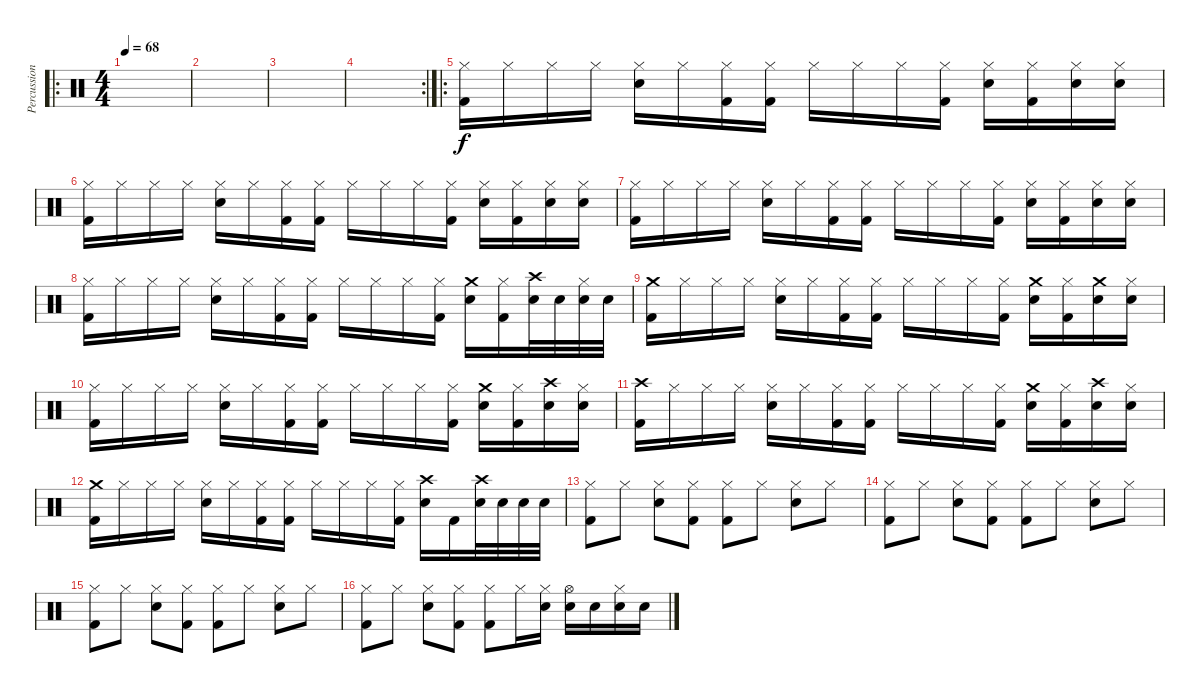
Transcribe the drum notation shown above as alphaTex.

\track ("Percussion" "Percussion") {instrument percussion}
\staff {score}
\articulation defaults
\ro
\ts (4 4)
\tempo 68
\clef neutral
\ks c
|
|
|
\rc 2
|
\ro
("Hi-Hat (closed)" "Kick (hit) 2").16 "Hi-Hat (closed)".16 "Hi-Hat (closed)".16 "Hi-Hat (closed)".16 ("Hi-Hat (closed)" "Electric Snare (hit)").16 "Hi-Hat (closed)".16 ("Hi-Hat (closed)" "Kick (hit) 2").16 ("Hi-Hat (closed)" "Kick (hit) 2").16 "Hi-Hat (closed)".16 "Hi-Hat (closed)".16 "Hi-Hat (closed)".16 ("Hi-Hat (closed)" "Kick (hit) 2").16 ("Hi-Hat (closed)" "Electric Snare (hit)").16 ("Hi-Hat (closed)" "Kick (hit) 2").16 ("Hi-Hat (closed)" "Electric Snare (hit)").16 ("Hi-Hat (closed)" "Electric Snare (hit)").16 |
("Hi-Hat (closed)" "Kick (hit) 2").16 "Hi-Hat (closed)".16 "Hi-Hat (closed)".16 "Hi-Hat (closed)".16 ("Hi-Hat (closed)" "Electric Snare (hit)").16 "Hi-Hat (closed)".16 ("Hi-Hat (closed)" "Kick (hit) 2").16 ("Hi-Hat (closed)" "Kick (hit) 2").16 "Hi-Hat (closed)".16 "Hi-Hat (closed)".16 "Hi-Hat (closed)".16 ("Hi-Hat (closed)" "Kick (hit) 2").16 ("Hi-Hat (closed)" "Electric Snare (hit)").16 ("Hi-Hat (closed)" "Kick (hit) 2").16 ("Hi-Hat (closed)" "Electric Snare (hit)").16 ("Hi-Hat (closed)" "Electric Snare (hit)").16 |
("Hi-Hat (closed)" "Kick (hit) 2").16 "Hi-Hat (closed)".16 "Hi-Hat (closed)".16 "Hi-Hat (closed)".16 ("Hi-Hat (closed)" "Electric Snare (hit)").16 "Hi-Hat (closed)".16 ("Hi-Hat (closed)" "Kick (hit) 2").16 ("Hi-Hat (closed)" "Kick (hit) 2").16 "Hi-Hat (closed)".16 "Hi-Hat (closed)".16 "Hi-Hat (closed)".16 ("Hi-Hat (closed)" "Kick (hit) 2").16 ("Hi-Hat (closed)" "Electric Snare (hit)").16 ("Hi-Hat (closed)" "Kick (hit) 2").16 ("Hi-Hat (closed)" "Electric Snare (hit)").16 ("Hi-Hat (closed)" "Electric Snare (hit)").16 |
("Hi-Hat (closed)" "Kick (hit) 2").16 "Hi-Hat (closed)".16 "Hi-Hat (closed)".16 "Hi-Hat (closed)".16 ("Hi-Hat (closed)" "Electric Snare (hit)").16 "Hi-Hat (closed)".16 ("Hi-Hat (closed)" "Kick (hit) 2").16 ("Hi-Hat (closed)" "Kick (hit) 2").16 "Hi-Hat (closed)".16 "Hi-Hat (closed)".16 "Hi-Hat (closed)".16 ("Hi-Hat (closed)" "Kick (hit) 2").16 ("Crash medium (hit)" "Electric Snare (hit)").16 ("Hi-Hat (closed)" "Kick (hit) 2").16 ("Crash high (hit)" "Electric Snare (hit)").32 "Electric Snare (hit)".32 ("Hi-Hat (closed)" "Electric Snare (hit)").32 "Electric Snare (hit)".32 |
("Crash medium (hit)" "Kick (hit) 2").16 "Hi-Hat (closed)".16 "Hi-Hat (closed)".16 "Hi-Hat (closed)".16 ("Hi-Hat (closed)" "Electric Snare (hit)").16 "Hi-Hat (closed)".16 ("Hi-Hat (closed)" "Kick (hit) 2").16 ("Hi-Hat (closed)" "Kick (hit) 2").16 "Hi-Hat (closed)".16 "Hi-Hat (closed)".16 "Hi-Hat (closed)".16 ("Hi-Hat (closed)" "Kick (hit) 2").16 ("Crash medium (hit)" "Electric Snare (hit)").16 ("Hi-Hat (closed)" "Kick (hit) 2").16 ("Crash medium (hit)" "Electric Snare (hit)").16 ("Hi-Hat (closed)" "Electric Snare (hit)").16 |
("Hi-Hat (closed)" "Kick (hit) 2").16 "Hi-Hat (closed)".16 "Hi-Hat (closed)".16 "Hi-Hat (closed)".16 ("Hi-Hat (closed)" "Electric Snare (hit)").16 "Hi-Hat (closed)".16 ("Hi-Hat (closed)" "Kick (hit) 2").16 ("Hi-Hat (closed)" "Kick (hit) 2").16 "Hi-Hat (closed)".16 "Hi-Hat (closed)".16 "Hi-Hat (closed)".16 ("Hi-Hat (closed)" "Kick (hit) 2").16 ("Crash medium (hit)" "Electric Snare (hit)").16 ("Hi-Hat (closed)" "Kick (hit) 2").16 ("Crash high (hit)" "Electric Snare (hit)").16 ("Hi-Hat (closed)" "Electric Snare (hit)").16 |
("Crash high (hit)" "Kick (hit) 2").16 "Hi-Hat (closed)".16 "Hi-Hat (closed)".16 "Hi-Hat (closed)".16 ("Hi-Hat (closed)" "Electric Snare (hit)").16 "Hi-Hat (closed)".16 ("Hi-Hat (closed)" "Kick (hit) 2").16 ("Hi-Hat (closed)" "Kick (hit) 2").16 "Hi-Hat (closed)".16 "Hi-Hat (closed)".16 "Hi-Hat (closed)".16 ("Hi-Hat (closed)" "Kick (hit) 2").16 ("Crash medium (hit)" "Electric Snare (hit)").16 ("Hi-Hat (closed)" "Kick (hit) 2").16 ("Crash high (hit)" "Electric Snare (hit)").16 ("Hi-Hat (closed)" "Electric Snare (hit)").16 |
("Crash medium (hit)" "Kick (hit) 2").16 "Hi-Hat (closed)".16 "Hi-Hat (closed)".16 "Hi-Hat (closed)".16 ("Hi-Hat (closed)" "Electric Snare (hit)").16 "Hi-Hat (closed)".16 ("Hi-Hat (closed)" "Kick (hit) 2").16 ("Hi-Hat (closed)" "Kick (hit) 2").16 "Hi-Hat (closed)".16 "Hi-Hat (closed)".16 "Hi-Hat (closed)".16 ("Hi-Hat (closed)" "Kick (hit) 2").16 ("Crash high (hit)" "Electric Snare (hit)").16 "Kick (hit) 2".16 ("Crash high (hit)" "Snare (hit) 2").32 "Snare (hit) 2".32 "Electric Snare (hit)".32 "Electric Snare (hit)".32 |
("Hi-Hat (closed)" "Kick (hit) 2").8 "Hi-Hat (closed)".8 ("Hi-Hat (closed)" "Electric Snare (hit)").8 ("Hi-Hat (closed)" "Kick (hit) 2").8 ("Hi-Hat (closed)" "Kick (hit) 2").8 "Hi-Hat (closed)".8 ("Hi-Hat (closed)" "Electric Snare (hit)").8 "Hi-Hat (closed)".8 |
("Hi-Hat (closed)" "Kick (hit) 2").8 "Hi-Hat (closed)".8 ("Hi-Hat (closed)" "Electric Snare (hit)").8 ("Hi-Hat (closed)" "Kick (hit) 2").8 ("Hi-Hat (closed)" "Kick (hit) 2").8 "Hi-Hat (closed)".8 ("Hi-Hat (closed)" "Electric Snare (hit)").8 "Hi-Hat (closed)".8 |
("Hi-Hat (closed)" "Kick (hit) 2").8 "Hi-Hat (closed)".8 ("Hi-Hat (closed)" "Electric Snare (hit)").8 ("Hi-Hat (closed)" "Kick (hit) 2").8 ("Hi-Hat (closed)" "Kick (hit) 2").8 "Hi-Hat (closed)".8 ("Hi-Hat (closed)" "Electric Snare (hit)").8 "Hi-Hat (closed)".8 |
("Hi-Hat (closed)" "Kick (hit) 2").8 "Hi-Hat (closed)".8 ("Hi-Hat (closed)" "Electric Snare (hit)").8 ("Hi-Hat (closed)" "Kick (hit) 2").8 ("Hi-Hat (closed)" "Kick (hit) 2").8 "Hi-Hat (closed)".16 ("Hi-Hat (closed)" "Electric Snare (hit)").16 ("Hi-Hat (open)" "Electric Snare (hit)").16 "Electric Snare (hit)".16 ("Hi-Hat (closed)" "Electric Snare (hit)").16 "Electric Snare (hit)".16
